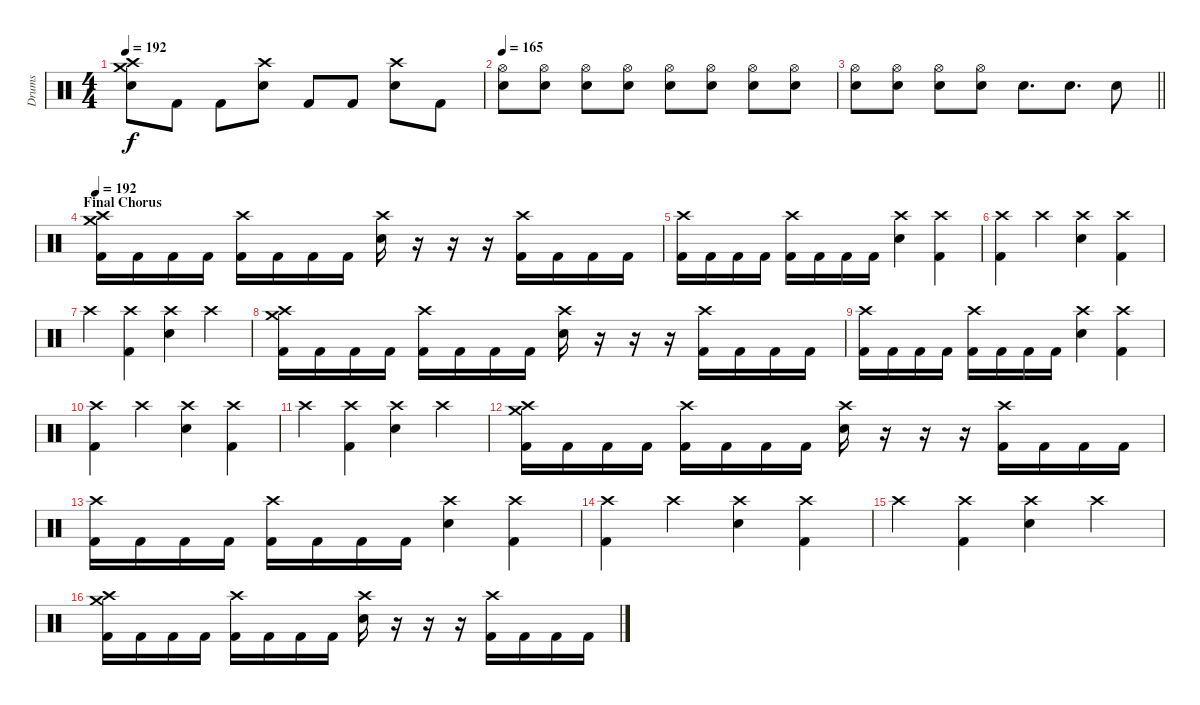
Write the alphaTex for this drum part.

\track ("Drums" "Drums") {instrument percussion}
\staff {score}
\articulation defaults
\ts (4 4)
\tempo 192
\clef neutral
\ks c
("Crash high (hit)" "Crash medium (hit)" "Snare (hit) 2").8{dy f} "Kick (hit) 2".8 "Kick (hit) 2".8 ("Crash high (hit)" "Snare (hit) 2").8 "Kick (hit) 2".8 "Kick (hit) 2".8 ("Crash high (hit)" "Snare (hit) 2").8 "Kick (hit) 2".8 |
\tempo 165
("Hi-Hat (open)" "Snare (hit) 2").8 ("Hi-Hat (open)" "Snare (hit) 2").8 ("Hi-Hat (open)" "Snare (hit) 2").8 ("Hi-Hat (open)" "Snare (hit) 2").8 ("Hi-Hat (open)" "Snare (hit) 2").8 ("Hi-Hat (open)" "Snare (hit) 2").8 ("Hi-Hat (open)" "Snare (hit) 2").8 ("Hi-Hat (open)" "Snare (hit) 2").8 |
\barLineRight lightlight
("Hi-Hat (open)" "Snare (hit) 2").8 ("Hi-Hat (open)" "Snare (hit) 2").8 ("Hi-Hat (open)" "Snare (hit) 2").8 ("Hi-Hat (open)" "Snare (hit) 2").8 "Snare (hit) 2".8{d} "Snare (hit) 2".8{d} "Snare (hit) 2".8 |
\section ("" "Final Chorus")
\tempo 192
("Crash high (hit)" "Crash medium (hit)" "Kick (hit) 2").16 "Kick (hit) 2".16 "Kick (hit) 2".16 "Kick (hit) 2".16 ("Crash high (hit)" "Kick (hit) 2").16 "Kick (hit) 2".16 "Kick (hit) 2".16 "Kick (hit) 2".16 ("Crash high (hit)" "Snare (hit) 2").16 r.16 r.16 r.16 ("Crash high (hit)" "Kick (hit) 2").16 "Kick (hit) 2".16 "Kick (hit) 2".16 "Kick (hit) 2".16 |
("Crash high (hit)" "Kick (hit) 2").16 "Kick (hit) 2".16 "Kick (hit) 2".16 "Kick (hit) 2".16 ("Crash high (hit)" "Kick (hit) 2").16 "Kick (hit) 2".16 "Kick (hit) 2".16 "Kick (hit) 2".16 ("Crash high (hit)" "Snare (hit) 2").4 ("Crash high (hit)" "Kick (hit) 2").4 |
("Crash high (hit)" "Kick (hit) 2").4 "Crash high (hit)".4 ("Crash high (hit)" "Snare (hit) 2").4 ("Crash high (hit)" "Kick (hit) 2").4 |
"Crash high (hit)".4 ("Crash high (hit)" "Kick (hit) 2").4 ("Crash high (hit)" "Snare (hit) 2").4 "Crash high (hit)".4 |
("Crash high (hit)" "Crash medium (hit)" "Kick (hit) 2").16 "Kick (hit) 2".16 "Kick (hit) 2".16 "Kick (hit) 2".16 ("Crash high (hit)" "Kick (hit) 2").16 "Kick (hit) 2".16 "Kick (hit) 2".16 "Kick (hit) 2".16 ("Crash high (hit)" "Snare (hit) 2").16 r.16 r.16 r.16 ("Crash high (hit)" "Kick (hit) 2").16 "Kick (hit) 2".16 "Kick (hit) 2".16 "Kick (hit) 2".16 |
("Crash high (hit)" "Kick (hit) 2").16 "Kick (hit) 2".16 "Kick (hit) 2".16 "Kick (hit) 2".16 ("Crash high (hit)" "Kick (hit) 2").16 "Kick (hit) 2".16 "Kick (hit) 2".16 "Kick (hit) 2".16 ("Crash high (hit)" "Snare (hit) 2").4 ("Crash high (hit)" "Kick (hit) 2").4 |
("Crash high (hit)" "Kick (hit) 2").4 "Crash high (hit)".4 ("Crash high (hit)" "Snare (hit) 2").4 ("Crash high (hit)" "Kick (hit) 2").4 |
"Crash high (hit)".4 ("Crash high (hit)" "Kick (hit) 2").4 ("Crash high (hit)" "Snare (hit) 2").4 "Crash high (hit)".4 |
("Crash high (hit)" "Crash medium (hit)" "Kick (hit) 2").16 "Kick (hit) 2".16 "Kick (hit) 2".16 "Kick (hit) 2".16 ("Crash high (hit)" "Kick (hit) 2").16 "Kick (hit) 2".16 "Kick (hit) 2".16 "Kick (hit) 2".16 ("Crash high (hit)" "Snare (hit) 2").16 r.16 r.16 r.16 ("Crash high (hit)" "Kick (hit) 2").16 "Kick (hit) 2".16 "Kick (hit) 2".16 "Kick (hit) 2".16 |
("Crash high (hit)" "Kick (hit) 2").16 "Kick (hit) 2".16 "Kick (hit) 2".16 "Kick (hit) 2".16 ("Crash high (hit)" "Kick (hit) 2").16 "Kick (hit) 2".16 "Kick (hit) 2".16 "Kick (hit) 2".16 ("Crash high (hit)" "Snare (hit) 2").4 ("Crash high (hit)" "Kick (hit) 2").4 |
("Crash high (hit)" "Kick (hit) 2").4 "Crash high (hit)".4 ("Crash high (hit)" "Snare (hit) 2").4 ("Crash high (hit)" "Kick (hit) 2").4 |
"Crash high (hit)".4 ("Crash high (hit)" "Kick (hit) 2").4 ("Crash high (hit)" "Snare (hit) 2").4 "Crash high (hit)".4 |
("Crash high (hit)" "Crash medium (hit)" "Kick (hit) 2").16 "Kick (hit) 2".16 "Kick (hit) 2".16 "Kick (hit) 2".16 ("Crash high (hit)" "Kick (hit) 2").16 "Kick (hit) 2".16 "Kick (hit) 2".16 "Kick (hit) 2".16 ("Crash high (hit)" "Snare (hit) 2").16 r.16 r.16 r.16 ("Crash high (hit)" "Kick (hit) 2").16 "Kick (hit) 2".16 "Kick (hit) 2".16 "Kick (hit) 2".16
